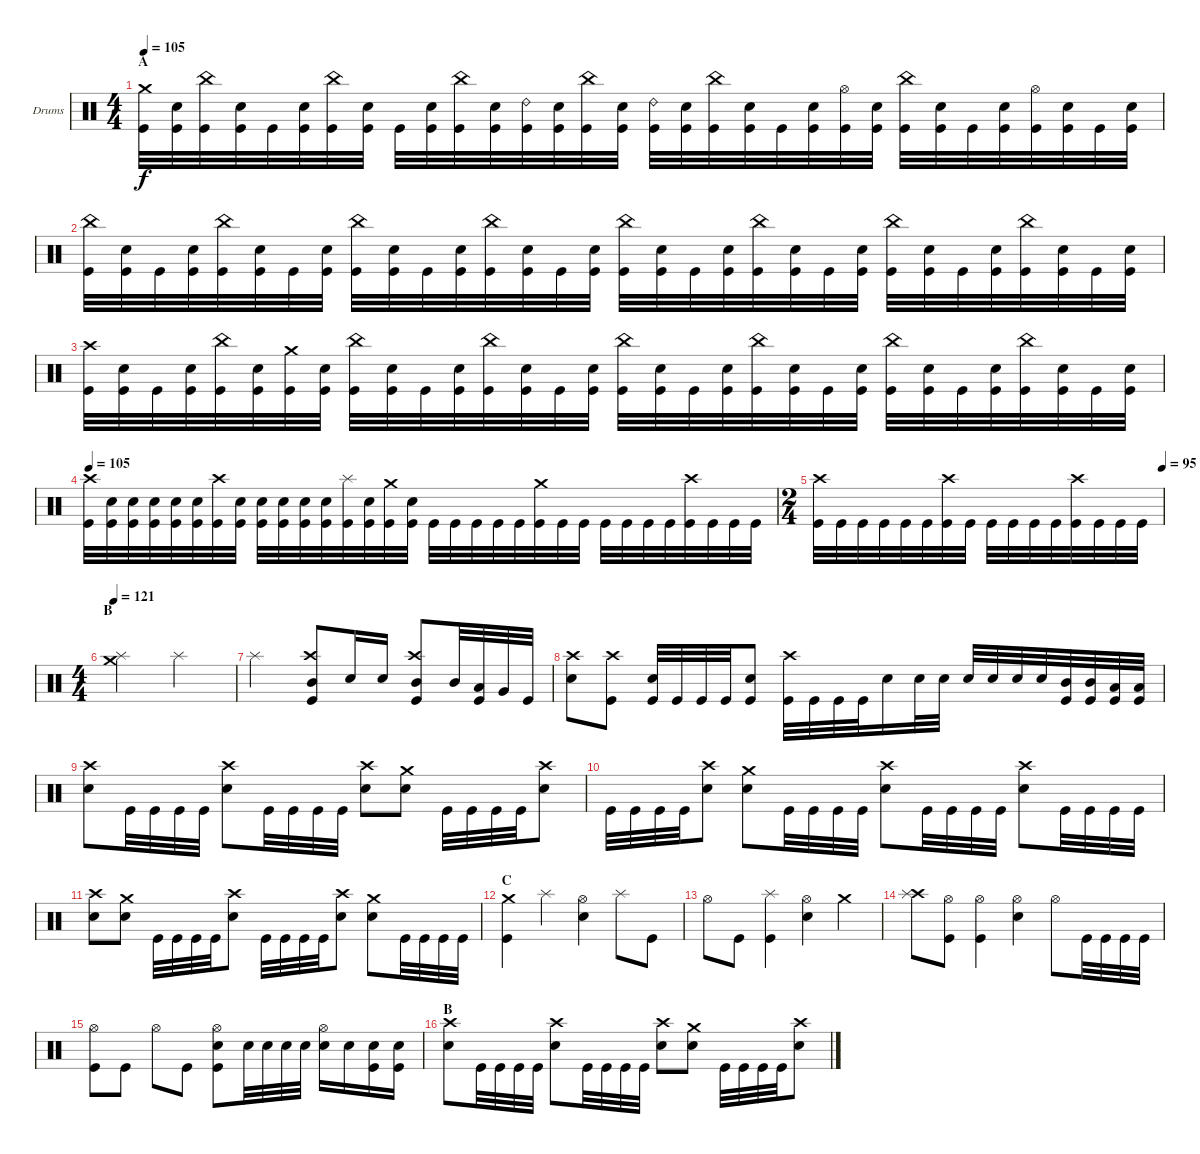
\bracketExtendMode groupsimilarinstruments
\firstSystemTrackNameOrientation horizontal
\otherSystemsTrackNameOrientation horizontal
\track ("Drumkit" "Drums") {instrument percussion}
\staff {score}
\articulation defaults
\ts (4 4)
\section ("" "A")
\tempo 105
\clef neutral
\ks c
("Kick (hit)" "Crash medium (hit)").32{dy f} ("Kick (hit)" "Snare (hit) 2").32 ("Kick (hit)" "China (hit)").32 ("Kick (hit)" "Snare (hit) 2").32 "Kick (hit)".32 ("Kick (hit)" "Snare (hit) 2").32 ("Kick (hit)" "China (hit)").32 ("Kick (hit)" "Snare (hit) 2").32 "Kick (hit)".32 ("Kick (hit)" "Snare (hit) 2").32 ("Kick (hit)" "China (hit)").32 ("Kick (hit)" "Snare (hit) 2").32 ("Kick (hit)" "Ride (bell) 2").32 ("Kick (hit)" "Snare (hit) 2").32 ("Kick (hit)" "China (hit)").32 ("Kick (hit)" "Snare (hit) 2").32 ("Kick (hit)" "Ride (bell) 2").32 ("Kick (hit)" "Snare (hit) 2").32 ("Kick (hit)" "China (hit)").32 ("Kick (hit)" "Snare (hit) 2").32 "Kick (hit)".32 ("Kick (hit)" "Snare (hit) 2").32 ("Kick (hit)" "Hi-Hat (open)").32 ("Kick (hit)" "Snare (hit) 2").32 ("Kick (hit)" "China (hit)").32 ("Kick (hit)" "Snare (hit) 2").32 "Kick (hit)".32 ("Kick (hit)" "Snare (hit) 2").32 ("Kick (hit)" "Hi-Hat (open)").32 ("Kick (hit)" "Snare (hit) 2").32 "Kick (hit)".32 ("Kick (hit)" "Snare (hit) 2").32 |
("Kick (hit)" "China (hit)").32 ("Kick (hit)" "Snare (hit) 2").32 "Kick (hit)".32 ("Kick (hit)" "Snare (hit) 2").32 ("Kick (hit)" "China (hit)").32 ("Kick (hit)" "Snare (hit) 2").32 "Kick (hit)".32 ("Kick (hit)" "Snare (hit) 2").32 ("Kick (hit)" "China (hit)").32 ("Kick (hit)" "Snare (hit) 2").32 "Kick (hit)".32 ("Kick (hit)" "Snare (hit) 2").32 ("Kick (hit)" "China (hit)").32 ("Kick (hit)" "Snare (hit) 2").32 "Kick (hit)".32 ("Kick (hit)" "Snare (hit) 2").32 ("Kick (hit)" "China (hit)").32 ("Kick (hit)" "Snare (hit) 2").32 "Kick (hit)".32 ("Kick (hit)" "Snare (hit) 2").32 ("Kick (hit)" "China (hit)").32 ("Kick (hit)" "Snare (hit) 2").32 "Kick (hit)".32 ("Kick (hit)" "Snare (hit) 2").32 ("Kick (hit)" "China (hit)").32 ("Kick (hit)" "Snare (hit) 2").32 "Kick (hit)".32 ("Kick (hit)" "Snare (hit) 2").32 ("Kick (hit)" "China (hit)").32 ("Kick (hit)" "Snare (hit) 2").32 "Kick (hit)".32 ("Kick (hit)" "Snare (hit) 2").32 |
("Kick (hit)" "Crash high (hit)").32 ("Kick (hit)" "Snare (hit) 2").32 "Kick (hit)".32 ("Kick (hit)" "Snare (hit) 2").32 ("Kick (hit)" "China (hit)").32 ("Kick (hit)" "Snare (hit) 2").32 ("Kick (hit)" "Crash medium (hit)").32 ("Kick (hit)" "Snare (hit) 2").32 ("Kick (hit)" "China (hit)").32 ("Kick (hit)" "Snare (hit) 2").32 "Kick (hit)".32 ("Kick (hit)" "Snare (hit) 2").32 ("Kick (hit)" "China (hit)").32 ("Kick (hit)" "Snare (hit) 2").32 "Kick (hit)".32 ("Kick (hit)" "Snare (hit) 2").32 ("Kick (hit)" "China (hit)").32 ("Kick (hit)" "Snare (hit) 2").32 "Kick (hit)".32 ("Kick (hit)" "Snare (hit) 2").32 ("Kick (hit)" "China (hit)").32 ("Kick (hit)" "Snare (hit) 2").32 "Kick (hit)".32 ("Kick (hit)" "Snare (hit) 2").32 ("Kick (hit)" "China (hit)").32 ("Kick (hit)" "Snare (hit) 2").32 "Kick (hit)".32 ("Kick (hit)" "Snare (hit) 2").32 ("Kick (hit)" "China (hit)").32 ("Kick (hit)" "Snare (hit) 2").32 "Kick (hit)".32 ("Kick (hit)" "Snare (hit) 2").32 |
\tempo 105
("Kick (hit)" "Crash high (hit)").32 ("Kick (hit)" "Snare (hit) 2").32 ("Kick (hit)" "Snare (hit) 2").32 ("Kick (hit)" "Snare (hit) 2").32 ("Kick (hit)" "Snare (hit) 2").32 ("Kick (hit)" "Snare (hit) 2").32 ("Kick (hit)" "Crash high (hit)").32 ("Kick (hit)" "Snare (hit) 2").32 ("Kick (hit)" "Snare (hit) 2").32 ("Kick (hit)" "Snare (hit) 2").32 ("Kick (hit)" "Snare (hit) 2").32 ("Kick (hit)" "Snare (hit) 2").32 ("Kick (hit)" "Splash (hit)").32 ("Kick (hit)" "Snare (hit) 2").32 ("Kick (hit)" "Crash medium (hit)").32 ("Kick (hit)" "Snare (hit) 2").32 "Kick (hit)".32 "Kick (hit)".32 "Kick (hit)".32 "Kick (hit)".32 "Kick (hit)".32 ("Kick (hit)" "Crash medium (hit)").32 "Kick (hit)".32 "Kick (hit)".32 "Kick (hit)".32 "Kick (hit)".32 "Kick (hit)".32 "Kick (hit)".32 ("Kick (hit)" "Crash high (hit)").32 "Kick (hit)".32 "Kick (hit)".32 "Kick (hit)".32 |
\ts (2 4)
\tempo (95 1)
("Kick (hit)" "Crash high (hit)").32 "Kick (hit)".32 "Kick (hit)".32 "Kick (hit)".32 "Kick (hit)".32 "Kick (hit)".32 ("Kick (hit)" "Crash high (hit)").32 "Kick (hit)".32 "Kick (hit)".32 "Kick (hit)".32 "Kick (hit)".32 "Kick (hit)".32 ("Kick (hit)" "Crash high (hit)").32 "Kick (hit)".32 "Kick (hit)".32 "Kick (hit)".32 |
\ts (4 4)
\section ("" "B")
\tempo 121
("Crash medium (hit)" "Splash (hit)").2 "Splash (hit)".2 |
"Splash (hit)".2 ("Kick (hit)" "Mid Tom (hit)" "Crash high (hit)").8 "Snare (hit) 2".16 "Snare (hit) 2".16 ("Kick (hit)" "Mid Tom (hit)" "Crash high (hit)").8 "Mid Tom (hit)".32 ("Low Tom (hit)" "Kick (hit)").32 "Very Low Tom (hit)".32 "Kick (hit)".32 |
("Snare (hit) 2" "Crash high (hit)").8 ("Kick (hit)" "Crash high (hit)").8 ("Kick (hit)" "Snare (hit) 2").32 "Kick (hit)".32 "Kick (hit)".32 "Kick (hit)".32 ("Kick (hit)" "Snare (hit) 2").8 ("Kick (hit)" "Crash high (hit)").32 "Kick (hit)".32 "Kick (hit)".32 "Kick (hit)".32 "Snare (hit) 2".16 "Snare (hit) 2".32 "Snare (hit) 2".32 "Snare (hit) 2".32 "Snare (hit) 2".32 "Snare (hit) 2".32 "Snare (hit) 2".32 ("Kick (hit)" "Mid Tom (hit)").32 ("Kick (hit)" "Mid Tom (hit)").32 ("Kick (hit)" "Low Tom (hit)").32 ("Kick (hit)" "Low Tom (hit)").32 |
("Snare (hit) 2" "Crash high (hit)").8 "Kick (hit)".32 "Kick (hit)".32 "Kick (hit)".32 "Kick (hit)".32 ("Snare (hit) 2" "Crash high (hit)").8 "Kick (hit)".32 "Kick (hit)".32 "Kick (hit)".32 "Kick (hit)".32 ("Snare (hit) 2" "Crash high (hit)").8 ("Snare (hit) 2" "Crash medium (hit)").8 "Kick (hit)".32 "Kick (hit)".32 "Kick (hit)".32 "Kick (hit)".32 ("Snare (hit) 2" "Crash high (hit)").8 |
"Kick (hit)".32 "Kick (hit)".32 "Kick (hit)".32 "Kick (hit)".32 ("Snare (hit) 2" "Crash high (hit)").8 ("Snare (hit) 2" "Crash medium (hit)").8 "Kick (hit)".32 "Kick (hit)".32 "Kick (hit)".32 "Kick (hit)".32 ("Snare (hit) 2" "Crash high (hit)").8 "Kick (hit)".32 "Kick (hit)".32 "Kick (hit)".32 "Kick (hit)".32 ("Snare (hit) 2" "Crash high (hit)").8 "Kick (hit)".32 "Kick (hit)".32 "Kick (hit)".32 "Kick (hit)".32 |
("Snare (hit) 2" "Crash high (hit)").8 ("Snare (hit) 2" "Crash medium (hit)").8 "Kick (hit)".32 "Kick (hit)".32 "Kick (hit)".32 "Kick (hit)".32 ("Snare (hit) 2" "Crash high (hit)").8 "Kick (hit)".32 "Kick (hit)".32 "Kick (hit)".32 "Kick (hit)".32 ("Snare (hit) 2" "Crash high (hit)").8 ("Snare (hit) 2" "Crash medium (hit)").8 "Kick (hit)".32 "Kick (hit)".32 "Kick (hit)".32 "Kick (hit)".32 |
\section ("" "C")
("Kick (hit)" "Crash medium (hit)").4 "Splash (hit)".4 ("Snare (hit) 2" "Hi-Hat (open)").4 "Splash (hit)".8 "Kick (hit)".8 |
"Hi-Hat (open)".8 "Kick (hit)".8 ("Kick (hit)" "Splash (hit)").4 ("Snare (hit) 2" "Hi-Hat (open)").4 "Crash medium (hit)".4 |
("Crash high (hit)" "Splash (hit)").8 ("Kick (hit)" "Hi-Hat (open)").8 ("Kick (hit)" "Hi-Hat (open)").4 ("Hi-Hat (open)" "Snare (hit) 2").4 "Hi-Hat (open)".8 "Kick (hit)".32 "Kick (hit)".32 "Kick (hit)".32 "Kick (hit)".32 |
("Kick (hit)" "Hi-Hat (open)").8 "Kick (hit)".8 "Hi-Hat (open)".8 "Kick (hit)".8 ("Hi-Hat (open)" "Kick (hit)" "Snare (hit) 2").8 "Snare (hit) 2".32 "Snare (hit) 2".32 "Snare (hit) 2".32 "Snare (hit) 2".32 ("Hi-Hat (open)" "Snare (hit) 2").16 "Snare (hit) 2".16 ("Snare (hit) 2" "Kick (hit)").16 ("Snare (hit) 2" "Kick (hit)").16 |
\section ("" "B")
("Snare (hit) 2" "Crash high (hit)").8 "Kick (hit)".32 "Kick (hit)".32 "Kick (hit)".32 "Kick (hit)".32 ("Snare (hit) 2" "Crash high (hit)").8 "Kick (hit)".32 "Kick (hit)".32 "Kick (hit)".32 "Kick (hit)".32 ("Snare (hit) 2" "Crash high (hit)").8 ("Snare (hit) 2" "Crash medium (hit)").8 "Kick (hit)".32 "Kick (hit)".32 "Kick (hit)".32 "Kick (hit)".32 ("Snare (hit) 2" "Crash high (hit)").8
